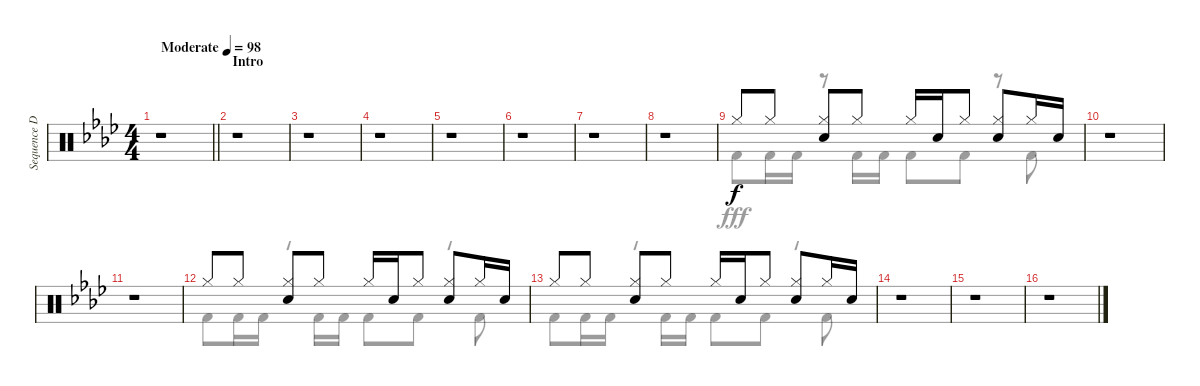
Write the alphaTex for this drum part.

\track ("Sequence Drums III" "Sequence D") {instrument percussion}
\staff {score}
\articulation defaults
\voice
\ts (4 4)
\tempo (98 "Moderate")
\clef neutral
\barLineRight lightlight
\ks ab
r.1{dy f} |
\section ("" "Intro")
r.1 |
r.1 |
r.1 |
r.1 |
r.1 |
r.1 |
r.1 |
"Hi-Hat (closed)".8 "Hi-Hat (closed)".8 ("Hi-Hat (closed)" "Electric Snare (hit)").8 "Hi-Hat (closed)".8 "Hi-Hat (closed)".16 "Electric Snare (hit)".16 "Hi-Hat (closed)".8 ("Hi-Hat (closed)" "Electric Snare (hit)").8 "Hi-Hat (closed)".16 "Electric Snare (hit)".16 |
r.1 |
r.1 |
"Hi-Hat (closed)".8 "Hi-Hat (closed)".8 ("Hi-Hat (closed)" "Electric Snare (hit)").8 "Hi-Hat (closed)".8 "Hi-Hat (closed)".16 "Electric Snare (hit)".16 "Hi-Hat (closed)".8 ("Hi-Hat (closed)" "Electric Snare (hit)").8 "Hi-Hat (closed)".16 "Electric Snare (hit)".16 |
"Hi-Hat (closed)".8 "Hi-Hat (closed)".8 ("Hi-Hat (closed)" "Electric Snare (hit)").8 "Hi-Hat (closed)".8 "Hi-Hat (closed)".16 "Electric Snare (hit)".16 "Hi-Hat (closed)".8 ("Hi-Hat (closed)" "Electric Snare (hit)").8 "Hi-Hat (closed)".16 "Electric Snare (hit)".16 |
r.1 |
r.1 |
r.1
\voice
\clef neutral
\ottava regular
\simile none
\barLineRight lightlight
\ks ab
r.1{dy fff} |
r.1 |
r.1 |
r.1 |
r.1 |
r.1 |
r.1 |
r.1 |
"Kick (hit) 2".8 "Kick (hit) 2".16 "Kick (hit) 2".16 r.8 "Kick (hit) 2".16 "Kick (hit) 2".16 "Kick (hit) 2".8 "Kick (hit) 2".8 r.8 "Kick (hit) 2".8 |
r.1 |
r.1 |
"Kick (hit) 2".8 "Kick (hit) 2".16 "Kick (hit) 2".16 r.8 "Kick (hit) 2".16 "Kick (hit) 2".16 "Kick (hit) 2".8 "Kick (hit) 2".8 r.8 "Kick (hit) 2".8 |
"Kick (hit) 2".8 "Kick (hit) 2".16 "Kick (hit) 2".16 r.8 "Kick (hit) 2".16 "Kick (hit) 2".16 "Kick (hit) 2".8 "Kick (hit) 2".8 r.8 "Kick (hit) 2".8 |
r.1 |
r.1 |
r.1
